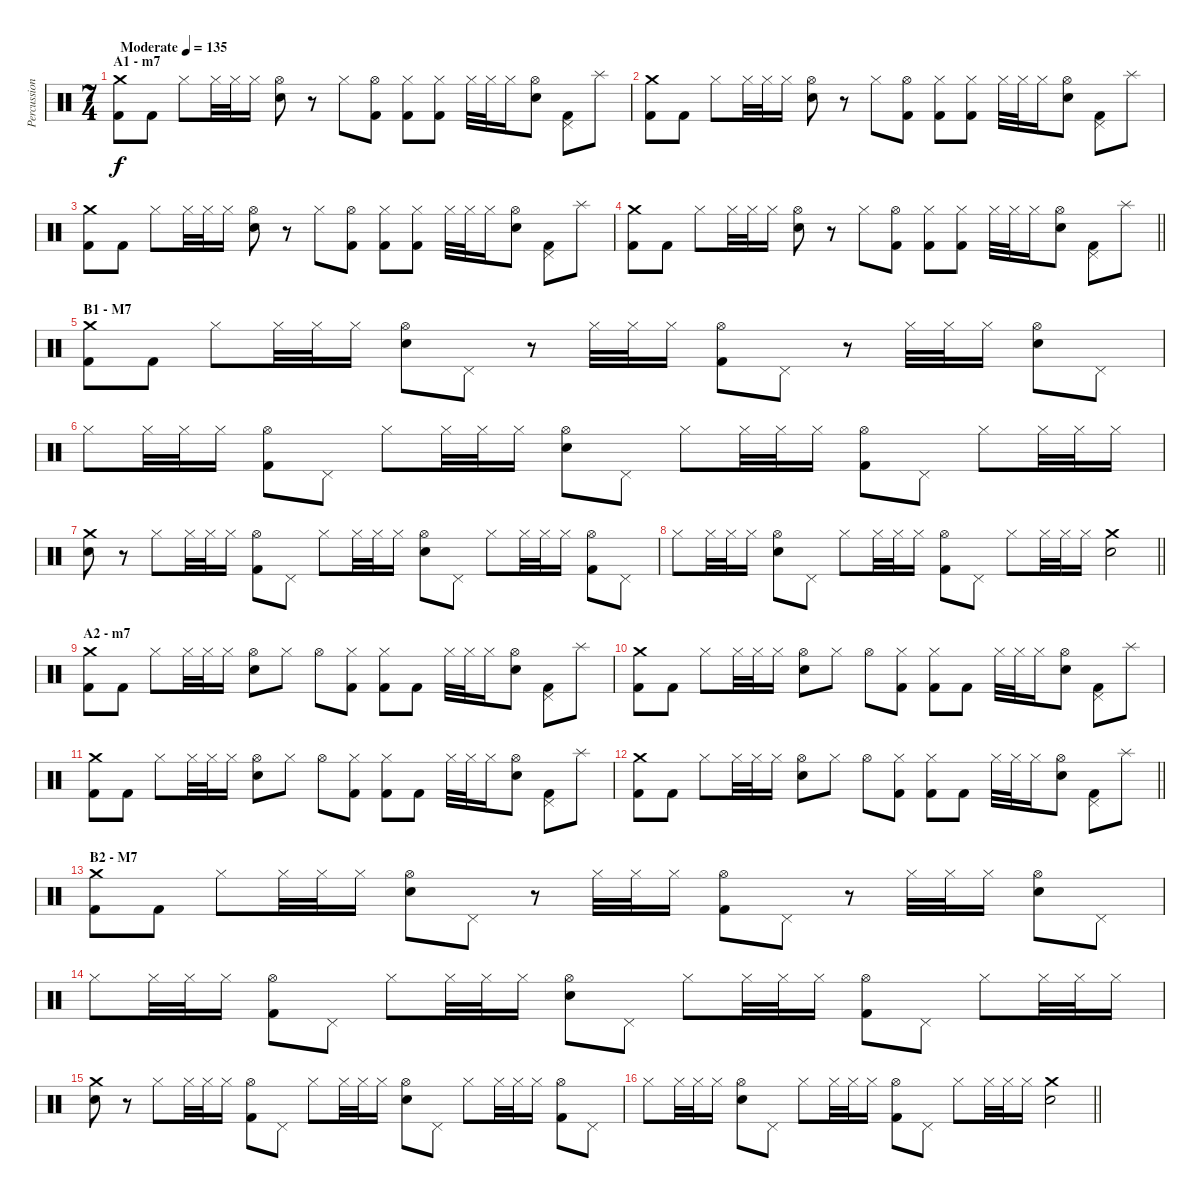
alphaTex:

\track ("Percussion" "Percussion") {instrument percussion}
\staff {score}
\articulation defaults
\ts (7 4)
\section ("" "A1 - m7")
\tempo (135 "Moderate")
\clef neutral
\ks c
("Crash medium (hit)" "Kick (hit) 2").8{dy f} "Kick (hit) 2".8 "Hi-Hat (closed)".8 "Hi-Hat (closed)".32 "Hi-Hat (closed)".32 "Hi-Hat (closed)".16 ("Hi-Hat (open)" "Snare (hit) 2").8 r.8 "Hi-Hat (closed)".8 ("Hi-Hat (open)" "Kick (hit) 2").8 ("Hi-Hat (closed)" "Kick (hit) 2").8 ("Hi-Hat (closed)" "Kick (hit) 2").8 "Hi-Hat (closed)".32 "Hi-Hat (closed)".32 "Hi-Hat (closed)".16 ("Hi-Hat (open)" "Snare (hit) 2").8 ("Pedal Hi-Hat (hit)" "Kick (hit) 2").8 "Splash (hit)".8 |
("Crash medium (hit)" "Kick (hit) 2").8 "Kick (hit) 2".8 "Hi-Hat (closed)".8 "Hi-Hat (closed)".32 "Hi-Hat (closed)".32 "Hi-Hat (closed)".16 ("Hi-Hat (open)" "Snare (hit) 2").8 r.8 "Hi-Hat (closed)".8 ("Hi-Hat (open)" "Kick (hit) 2").8 ("Hi-Hat (closed)" "Kick (hit) 2").8 ("Hi-Hat (closed)" "Kick (hit) 2").8 "Hi-Hat (closed)".32 "Hi-Hat (closed)".32 "Hi-Hat (closed)".16 ("Hi-Hat (open)" "Snare (hit) 2").8 ("Pedal Hi-Hat (hit)" "Kick (hit) 2").8 "Splash (hit)".8 |
("Crash medium (hit)" "Kick (hit) 2").8 "Kick (hit) 2".8 "Hi-Hat (closed)".8 "Hi-Hat (closed)".32 "Hi-Hat (closed)".32 "Hi-Hat (closed)".16 ("Hi-Hat (open)" "Snare (hit) 2").8 r.8 "Hi-Hat (closed)".8 ("Hi-Hat (open)" "Kick (hit) 2").8 ("Hi-Hat (closed)" "Kick (hit) 2").8 ("Hi-Hat (closed)" "Kick (hit) 2").8 "Hi-Hat (closed)".32 "Hi-Hat (closed)".32 "Hi-Hat (closed)".16 ("Hi-Hat (open)" "Snare (hit) 2").8 ("Pedal Hi-Hat (hit)" "Kick (hit) 2").8 "Splash (hit)".8 |
\barLineRight lightlight
("Crash medium (hit)" "Kick (hit) 2").8 "Kick (hit) 2".8 "Hi-Hat (closed)".8 "Hi-Hat (closed)".32 "Hi-Hat (closed)".32 "Hi-Hat (closed)".16 ("Hi-Hat (open)" "Snare (hit) 2").8 r.8 "Hi-Hat (closed)".8 ("Hi-Hat (open)" "Kick (hit) 2").8 ("Hi-Hat (closed)" "Kick (hit) 2").8 ("Hi-Hat (closed)" "Kick (hit) 2").8 "Hi-Hat (closed)".32 "Hi-Hat (closed)".32 "Hi-Hat (closed)".16 ("Hi-Hat (open)" "Snare (hit) 2").8 ("Pedal Hi-Hat (hit)" "Kick (hit) 2").8 "Splash (hit)".8 |
\section ("" "B1 - M7")
("Crash medium (hit)" "Kick (hit) 2").8 "Kick (hit) 2".8 "Hi-Hat (closed)".8 "Hi-Hat (closed)".32 "Hi-Hat (closed)".32 "Hi-Hat (closed)".16 ("Hi-Hat (open)" "Snare (hit) 2").8 "Pedal Hi-Hat (hit)".8 r.8 "Hi-Hat (closed)".32 "Hi-Hat (closed)".32 "Hi-Hat (closed)".16 ("Hi-Hat (open)" "Kick (hit) 2").8 "Pedal Hi-Hat (hit)".8 r.8 "Hi-Hat (closed)".32 "Hi-Hat (closed)".32 "Hi-Hat (closed)".16 ("Hi-Hat (open)" "Snare (hit) 2").8 "Pedal Hi-Hat (hit)".8 |
"Hi-Hat (closed)".8 "Hi-Hat (closed)".32 "Hi-Hat (closed)".32 "Hi-Hat (closed)".16 ("Hi-Hat (open)" "Kick (hit) 2").8 "Pedal Hi-Hat (hit)".8 "Hi-Hat (closed)".8 "Hi-Hat (closed)".32 "Hi-Hat (closed)".32 "Hi-Hat (closed)".16 ("Hi-Hat (open)" "Snare (hit) 2").8 "Pedal Hi-Hat (hit)".8 "Hi-Hat (closed)".8 "Hi-Hat (closed)".32 "Hi-Hat (closed)".32 "Hi-Hat (closed)".16 ("Hi-Hat (open)" "Kick (hit) 2").8 "Pedal Hi-Hat (hit)".8 "Hi-Hat (closed)".8 "Hi-Hat (closed)".32 "Hi-Hat (closed)".32 "Hi-Hat (closed)".16 |
("Crash medium (hit)" "Snare (hit) 2").8 r.8 "Hi-Hat (closed)".8 "Hi-Hat (closed)".32 "Hi-Hat (closed)".32 "Hi-Hat (closed)".16 ("Hi-Hat (open)" "Kick (hit) 2").8 "Pedal Hi-Hat (hit)".8 "Hi-Hat (closed)".8 "Hi-Hat (closed)".32 "Hi-Hat (closed)".32 "Hi-Hat (closed)".16 ("Hi-Hat (open)" "Snare (hit) 2").8 "Pedal Hi-Hat (hit)".8 "Hi-Hat (closed)".8 "Hi-Hat (closed)".32 "Hi-Hat (closed)".32 "Hi-Hat (closed)".16 ("Hi-Hat (open)" "Kick (hit) 2").8 "Pedal Hi-Hat (hit)".8 |
\barLineRight lightlight "Hi-Hat (closed)".8 "Hi-Hat (closed)".32 "Hi-Hat (closed)".32 "Hi-Hat (closed)".16
("Hi-Hat (open)" "Snare (hit) 2").8 "Pedal Hi-Hat (hit)".8 "Hi-Hat (closed)".8 "Hi-Hat (closed)".32 "Hi-Hat (closed)".32 "Hi-Hat (closed)".16 ("Hi-Hat (open)" "Kick (hit) 2").8 "Pedal Hi-Hat (hit)".8 "Hi-Hat (closed)".8 "Hi-Hat (closed)".32 "Hi-Hat (closed)".32 "Hi-Hat (closed)".16 ("Crash medium (hit)" "Snare (hit) 2").2 |
\section ("" "A2 - m7")
("Crash medium (hit)" "Kick (hit) 2").8 "Kick (hit) 2".8 "Hi-Hat (closed)".8 "Hi-Hat (closed)".32 "Hi-Hat (closed)".32 "Hi-Hat (closed)".16 ("Hi-Hat (open)" "Snare (hit) 2").8 "Hi-Hat (closed)".8 "Hi-Hat (open)".8 ("Hi-Hat (closed)" "Kick (hit) 2").8 ("Hi-Hat (closed)" "Kick (hit) 2").8 "Kick (hit) 2".8 "Hi-Hat (closed)".32 "Hi-Hat (closed)".32 "Hi-Hat (closed)".16 ("Hi-Hat (open)" "Snare (hit) 2").8 ("Pedal Hi-Hat (hit)" "Kick (hit) 2").8 "Splash (hit)".8 |
("Crash medium (hit)" "Kick (hit) 2").8 "Kick (hit) 2".8 "Hi-Hat (closed)".8 "Hi-Hat (closed)".32 "Hi-Hat (closed)".32 "Hi-Hat (closed)".16 ("Hi-Hat (open)" "Snare (hit) 2").8 "Hi-Hat (closed)".8 "Hi-Hat (open)".8 ("Hi-Hat (closed)" "Kick (hit) 2").8 ("Hi-Hat (closed)" "Kick (hit) 2").8 "Kick (hit) 2".8 "Hi-Hat (closed)".32 "Hi-Hat (closed)".32 "Hi-Hat (closed)".16 ("Hi-Hat (open)" "Snare (hit) 2").8 ("Pedal Hi-Hat (hit)" "Kick (hit) 2").8 "Splash (hit)".8 |
("Crash medium (hit)" "Kick (hit) 2").8 "Kick (hit) 2".8 "Hi-Hat (closed)".8 "Hi-Hat (closed)".32 "Hi-Hat (closed)".32 "Hi-Hat (closed)".16 ("Hi-Hat (open)" "Snare (hit) 2").8 "Hi-Hat (closed)".8 "Hi-Hat (open)".8 ("Hi-Hat (closed)" "Kick (hit) 2").8 ("Hi-Hat (closed)" "Kick (hit) 2").8 "Kick (hit) 2".8 "Hi-Hat (closed)".32 "Hi-Hat (closed)".32 "Hi-Hat (closed)".16 ("Hi-Hat (open)" "Snare (hit) 2").8 ("Pedal Hi-Hat (hit)" "Kick (hit) 2").8 "Splash (hit)".8 |
\barLineRight lightlight
("Crash medium (hit)" "Kick (hit) 2").8 "Kick (hit) 2".8 "Hi-Hat (closed)".8 "Hi-Hat (closed)".32 "Hi-Hat (closed)".32 "Hi-Hat (closed)".16 ("Hi-Hat (open)" "Snare (hit) 2").8 "Hi-Hat (closed)".8 "Hi-Hat (open)".8 ("Hi-Hat (closed)" "Kick (hit) 2").8 ("Hi-Hat (closed)" "Kick (hit) 2").8 "Kick (hit) 2".8 "Hi-Hat (closed)".32 "Hi-Hat (closed)".32 "Hi-Hat (closed)".16 ("Hi-Hat (open)" "Snare (hit) 2").8 ("Pedal Hi-Hat (hit)" "Kick (hit) 2").8 "Splash (hit)".8 |
\section ("" "B2 - M7")
("Crash medium (hit)" "Kick (hit) 2").8 "Kick (hit) 2".8 "Hi-Hat (closed)".8 "Hi-Hat (closed)".32 "Hi-Hat (closed)".32 "Hi-Hat (closed)".16 ("Hi-Hat (open)" "Snare (hit) 2").8 "Pedal Hi-Hat (hit)".8 r.8 "Hi-Hat (closed)".32 "Hi-Hat (closed)".32 "Hi-Hat (closed)".16 ("Hi-Hat (open)" "Kick (hit) 2").8 "Pedal Hi-Hat (hit)".8 r.8 "Hi-Hat (closed)".32 "Hi-Hat (closed)".32 "Hi-Hat (closed)".16 ("Hi-Hat (open)" "Snare (hit) 2").8 "Pedal Hi-Hat (hit)".8 |
"Hi-Hat (closed)".8 "Hi-Hat (closed)".32 "Hi-Hat (closed)".32 "Hi-Hat (closed)".16 ("Hi-Hat (open)" "Kick (hit) 2").8 "Pedal Hi-Hat (hit)".8 "Hi-Hat (closed)".8 "Hi-Hat (closed)".32 "Hi-Hat (closed)".32 "Hi-Hat (closed)".16 ("Hi-Hat (open)" "Snare (hit) 2").8 "Pedal Hi-Hat (hit)".8 "Hi-Hat (closed)".8 "Hi-Hat (closed)".32 "Hi-Hat (closed)".32 "Hi-Hat (closed)".16 ("Hi-Hat (open)" "Kick (hit) 2").8 "Pedal Hi-Hat (hit)".8 "Hi-Hat (closed)".8 "Hi-Hat (closed)".32 "Hi-Hat (closed)".32 "Hi-Hat (closed)".16 |
("Crash medium (hit)" "Snare (hit) 2").8 r.8 "Hi-Hat (closed)".8 "Hi-Hat (closed)".32 "Hi-Hat (closed)".32 "Hi-Hat (closed)".16 ("Hi-Hat (open)" "Kick (hit) 2").8 "Pedal Hi-Hat (hit)".8 "Hi-Hat (closed)".8 "Hi-Hat (closed)".32 "Hi-Hat (closed)".32 "Hi-Hat (closed)".16 ("Hi-Hat (open)" "Snare (hit) 2").8 "Pedal Hi-Hat (hit)".8 "Hi-Hat (closed)".8 "Hi-Hat (closed)".32 "Hi-Hat (closed)".32 "Hi-Hat (closed)".16 ("Hi-Hat (open)" "Kick (hit) 2").8 "Pedal Hi-Hat (hit)".8 |
\barLineRight lightlight "Hi-Hat (closed)".8 "Hi-Hat (closed)".32 "Hi-Hat (closed)".32 "Hi-Hat (closed)".16
("Hi-Hat (open)" "Snare (hit) 2").8 "Pedal Hi-Hat (hit)".8 "Hi-Hat (closed)".8 "Hi-Hat (closed)".32 "Hi-Hat (closed)".32 "Hi-Hat (closed)".16 ("Hi-Hat (open)" "Kick (hit) 2").8 "Pedal Hi-Hat (hit)".8 "Hi-Hat (closed)".8 "Hi-Hat (closed)".32 "Hi-Hat (closed)".32 "Hi-Hat (closed)".16 ("Crash medium (hit)" "Snare (hit) 2").2
